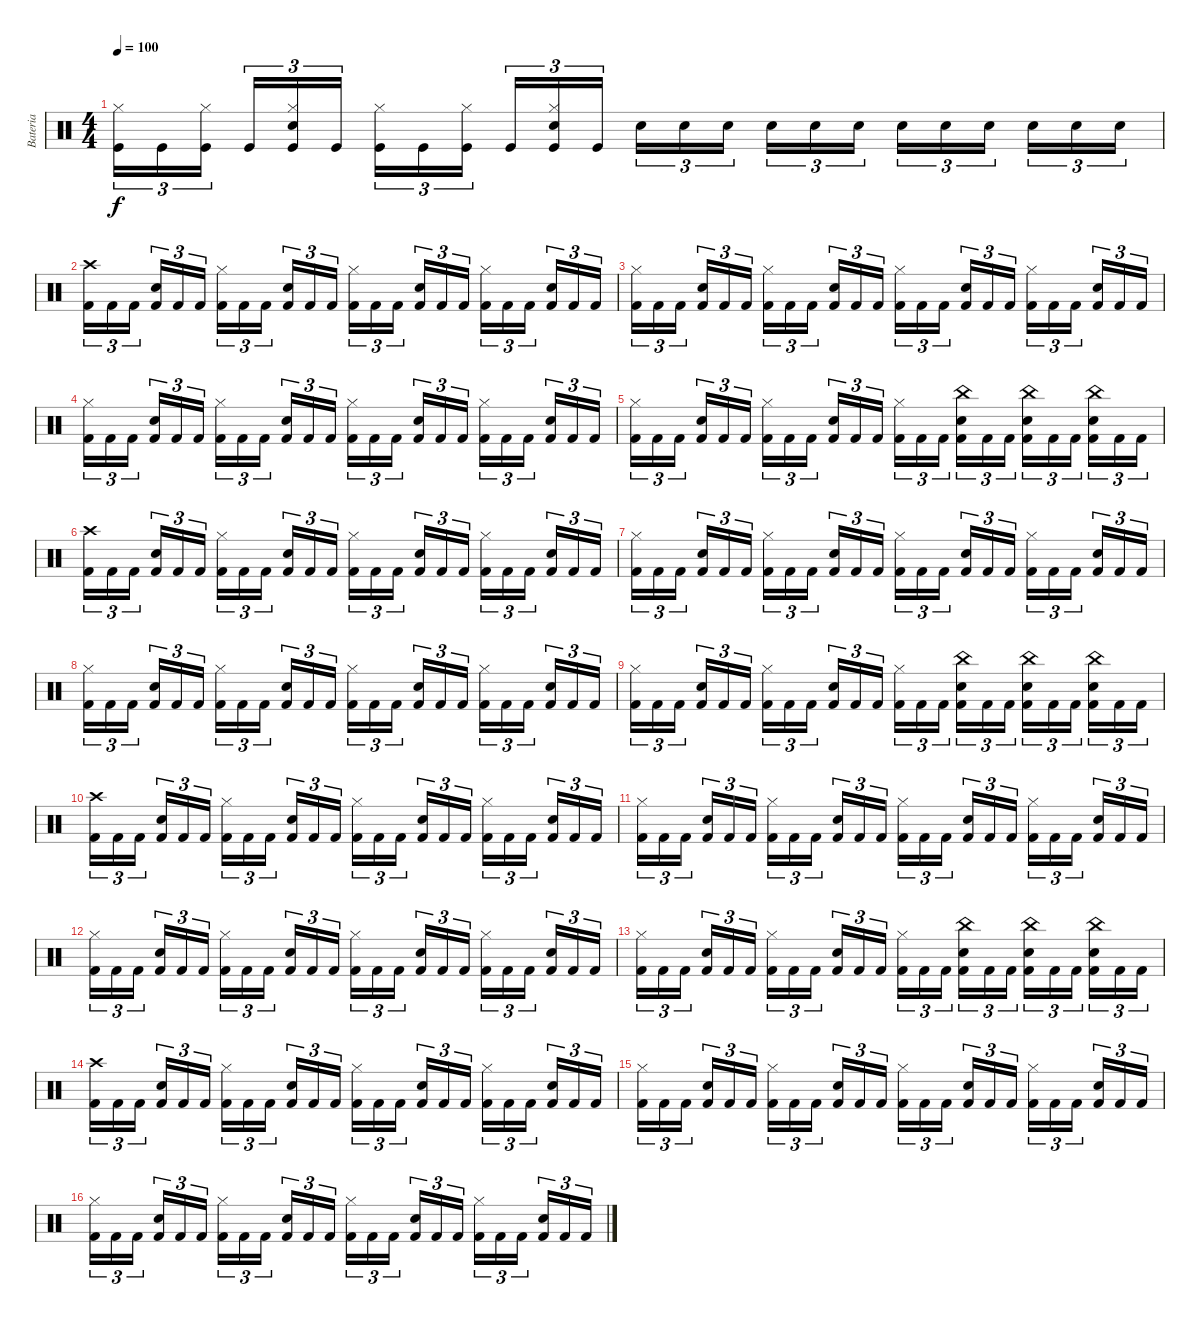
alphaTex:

\track ("Bateria" "Bateria") {instrument percussion}
\staff {score}
\articulation defaults
\ts (4 4)
\tempo 100
\clef neutral
\ks c
("Kick (hit)" "Hi-Hat (closed)").16{tu (3 2) dy f} "Kick (hit)".16{tu (3 2)} ("Kick (hit)" "Hi-Hat (closed)").16{tu (3 2)} "Kick (hit)".16{tu (3 2)} ("Kick (hit)" "Hi-Hat (closed)" "Snare (hit) 2").16{tu (3 2)} "Kick (hit)".16{tu (3 2)} ("Kick (hit)" "Hi-Hat (closed)").16{tu (3 2)} "Kick (hit)".16{tu (3 2)} ("Kick (hit)" "Hi-Hat (closed)").16{tu (3 2)} "Kick (hit)".16{tu (3 2)} ("Kick (hit)" "Hi-Hat (closed)" "Snare (hit) 2").16{tu (3 2)} "Kick (hit)".16{tu (3 2)} "Snare (hit) 2".16{tu (3 2)} "Snare (hit) 2".16{tu (3 2)} "Snare (hit) 2".16{tu (3 2)} "Snare (hit) 2".16{tu (3 2)} "Snare (hit) 2".16{tu (3 2)} "Snare (hit) 2".16{tu (3 2)} "Snare (hit) 2".16{tu (3 2)} "Snare (hit) 2".16{tu (3 2)} "Snare (hit) 2".16{tu (3 2)} "Snare (hit) 2".16{tu (3 2)} "Snare (hit) 2".16{tu (3 2)} "Snare (hit) 2".16{tu (3 2)} |
("Crash high (hit)" "Kick (hit) 2").16{tu (3 2)} "Kick (hit) 2".16{tu (3 2)} "Kick (hit) 2".16{tu (3 2)} ("Snare (hit) 2" "Kick (hit) 2").16{tu (3 2)} "Kick (hit) 2".16{tu (3 2)} "Kick (hit) 2".16{tu (3 2)} ("Hi-Hat (closed)" "Kick (hit) 2").16{tu (3 2)} "Kick (hit) 2".16{tu (3 2)} "Kick (hit) 2".16{tu (3 2)} ("Snare (hit) 2" "Kick (hit) 2").16{tu (3 2)} "Kick (hit) 2".16{tu (3 2)} "Kick (hit) 2".16{tu (3 2)} ("Hi-Hat (closed)" "Kick (hit) 2").16{tu (3 2)} "Kick (hit) 2".16{tu (3 2)} "Kick (hit) 2".16{tu (3 2)} ("Snare (hit) 2" "Kick (hit) 2").16{tu (3 2)} "Kick (hit) 2".16{tu (3 2)} "Kick (hit) 2".16{tu (3 2)} ("Hi-Hat (closed)" "Kick (hit) 2").16{tu (3 2)} "Kick (hit) 2".16{tu (3 2)} "Kick (hit) 2".16{tu (3 2)} ("Snare (hit) 2" "Kick (hit) 2").16{tu (3 2)} "Kick (hit) 2".16{tu (3 2)} "Kick (hit) 2".16{tu (3 2)} |
("Hi-Hat (closed)" "Kick (hit) 2").16{tu (3 2)} "Kick (hit) 2".16{tu (3 2)} "Kick (hit) 2".16{tu (3 2)} ("Snare (hit) 2" "Kick (hit) 2").16{tu (3 2)} "Kick (hit) 2".16{tu (3 2)} "Kick (hit) 2".16{tu (3 2)} ("Hi-Hat (closed)" "Kick (hit) 2").16{tu (3 2)} "Kick (hit) 2".16{tu (3 2)} "Kick (hit) 2".16{tu (3 2)} ("Snare (hit) 2" "Kick (hit) 2").16{tu (3 2)} "Kick (hit) 2".16{tu (3 2)} "Kick (hit) 2".16{tu (3 2)} ("Hi-Hat (closed)" "Kick (hit) 2").16{tu (3 2)} "Kick (hit) 2".16{tu (3 2)} "Kick (hit) 2".16{tu (3 2)} ("Snare (hit) 2" "Kick (hit) 2").16{tu (3 2)} "Kick (hit) 2".16{tu (3 2)} "Kick (hit) 2".16{tu (3 2)} ("Hi-Hat (closed)" "Kick (hit) 2").16{tu (3 2)} "Kick (hit) 2".16{tu (3 2)} "Kick (hit) 2".16{tu (3 2)} ("Snare (hit) 2" "Kick (hit) 2").16{tu (3 2)} "Kick (hit) 2".16{tu (3 2)} "Kick (hit) 2".16{tu (3 2)} |
("Hi-Hat (closed)" "Kick (hit) 2").16{tu (3 2)} "Kick (hit) 2".16{tu (3 2)} "Kick (hit) 2".16{tu (3 2)} ("Snare (hit) 2" "Kick (hit) 2").16{tu (3 2)} "Kick (hit) 2".16{tu (3 2)} "Kick (hit) 2".16{tu (3 2)} ("Hi-Hat (closed)" "Kick (hit) 2").16{tu (3 2)} "Kick (hit) 2".16{tu (3 2)} "Kick (hit) 2".16{tu (3 2)} ("Snare (hit) 2" "Kick (hit) 2").16{tu (3 2)} "Kick (hit) 2".16{tu (3 2)} "Kick (hit) 2".16{tu (3 2)} ("Hi-Hat (closed)" "Kick (hit) 2").16{tu (3 2)} "Kick (hit) 2".16{tu (3 2)} "Kick (hit) 2".16{tu (3 2)} ("Snare (hit) 2" "Kick (hit) 2").16{tu (3 2)} "Kick (hit) 2".16{tu (3 2)} "Kick (hit) 2".16{tu (3 2)} ("Hi-Hat (closed)" "Kick (hit) 2").16{tu (3 2)} "Kick (hit) 2".16{tu (3 2)} "Kick (hit) 2".16{tu (3 2)} ("Snare (hit) 2" "Kick (hit) 2").16{tu (3 2)} "Kick (hit) 2".16{tu (3 2)} "Kick (hit) 2".16{tu (3 2)} |
("Hi-Hat (closed)" "Kick (hit) 2").16{tu (3 2)} "Kick (hit) 2".16{tu (3 2)} "Kick (hit) 2".16{tu (3 2)} ("Snare (hit) 2" "Kick (hit) 2").16{tu (3 2)} "Kick (hit) 2".16{tu (3 2)} "Kick (hit) 2".16{tu (3 2)} ("Hi-Hat (closed)" "Kick (hit) 2").16{tu (3 2)} "Kick (hit) 2".16{tu (3 2)} "Kick (hit) 2".16{tu (3 2)} ("Snare (hit) 2" "Kick (hit) 2").16{tu (3 2)} "Kick (hit) 2".16{tu (3 2)} "Kick (hit) 2".16{tu (3 2)} ("Hi-Hat (closed)" "Kick (hit) 2").16{tu (3 2)} "Kick (hit) 2".16{tu (3 2)} "Kick (hit) 2".16{tu (3 2)} ("China (hit)" "Snare (hit) 2" "Kick (hit) 2").16{tu (3 2)} "Kick (hit) 2".16{tu (3 2)} "Kick (hit) 2".16{tu (3 2)} ("China (hit)" "Snare (hit) 2" "Kick (hit) 2").16{tu (3 2)} "Kick (hit) 2".16{tu (3 2)} "Kick (hit) 2".16{tu (3 2)} ("China (hit)" "Snare (hit) 2" "Kick (hit) 2").16{tu (3 2)} "Kick (hit) 2".16{tu (3 2)} "Kick (hit) 2".16{tu (3 2)} |
("Crash high (hit)" "Kick (hit) 2").16{tu (3 2)} "Kick (hit) 2".16{tu (3 2)} "Kick (hit) 2".16{tu (3 2)} ("Snare (hit) 2" "Kick (hit) 2").16{tu (3 2)} "Kick (hit) 2".16{tu (3 2)} "Kick (hit) 2".16{tu (3 2)} ("Hi-Hat (closed)" "Kick (hit) 2").16{tu (3 2)} "Kick (hit) 2".16{tu (3 2)} "Kick (hit) 2".16{tu (3 2)} ("Snare (hit) 2" "Kick (hit) 2").16{tu (3 2)} "Kick (hit) 2".16{tu (3 2)} "Kick (hit) 2".16{tu (3 2)} ("Hi-Hat (closed)" "Kick (hit) 2").16{tu (3 2)} "Kick (hit) 2".16{tu (3 2)} "Kick (hit) 2".16{tu (3 2)} ("Snare (hit) 2" "Kick (hit) 2").16{tu (3 2)} "Kick (hit) 2".16{tu (3 2)} "Kick (hit) 2".16{tu (3 2)} ("Hi-Hat (closed)" "Kick (hit) 2").16{tu (3 2)} "Kick (hit) 2".16{tu (3 2)} "Kick (hit) 2".16{tu (3 2)} ("Snare (hit) 2" "Kick (hit) 2").16{tu (3 2)} "Kick (hit) 2".16{tu (3 2)} "Kick (hit) 2".16{tu (3 2)} |
("Hi-Hat (closed)" "Kick (hit) 2").16{tu (3 2)} "Kick (hit) 2".16{tu (3 2)} "Kick (hit) 2".16{tu (3 2)} ("Snare (hit) 2" "Kick (hit) 2").16{tu (3 2)} "Kick (hit) 2".16{tu (3 2)} "Kick (hit) 2".16{tu (3 2)} ("Hi-Hat (closed)" "Kick (hit) 2").16{tu (3 2)} "Kick (hit) 2".16{tu (3 2)} "Kick (hit) 2".16{tu (3 2)} ("Snare (hit) 2" "Kick (hit) 2").16{tu (3 2)} "Kick (hit) 2".16{tu (3 2)} "Kick (hit) 2".16{tu (3 2)} ("Hi-Hat (closed)" "Kick (hit) 2").16{tu (3 2)} "Kick (hit) 2".16{tu (3 2)} "Kick (hit) 2".16{tu (3 2)} ("Snare (hit) 2" "Kick (hit) 2").16{tu (3 2)} "Kick (hit) 2".16{tu (3 2)} "Kick (hit) 2".16{tu (3 2)} ("Hi-Hat (closed)" "Kick (hit) 2").16{tu (3 2)} "Kick (hit) 2".16{tu (3 2)} "Kick (hit) 2".16{tu (3 2)} ("Snare (hit) 2" "Kick (hit) 2").16{tu (3 2)} "Kick (hit) 2".16{tu (3 2)} "Kick (hit) 2".16{tu (3 2)} |
("Hi-Hat (closed)" "Kick (hit) 2").16{tu (3 2)} "Kick (hit) 2".16{tu (3 2)} "Kick (hit) 2".16{tu (3 2)} ("Snare (hit) 2" "Kick (hit) 2").16{tu (3 2)} "Kick (hit) 2".16{tu (3 2)} "Kick (hit) 2".16{tu (3 2)} ("Hi-Hat (closed)" "Kick (hit) 2").16{tu (3 2)} "Kick (hit) 2".16{tu (3 2)} "Kick (hit) 2".16{tu (3 2)} ("Snare (hit) 2" "Kick (hit) 2").16{tu (3 2)} "Kick (hit) 2".16{tu (3 2)} "Kick (hit) 2".16{tu (3 2)} ("Hi-Hat (closed)" "Kick (hit) 2").16{tu (3 2)} "Kick (hit) 2".16{tu (3 2)} "Kick (hit) 2".16{tu (3 2)} ("Snare (hit) 2" "Kick (hit) 2").16{tu (3 2)} "Kick (hit) 2".16{tu (3 2)} "Kick (hit) 2".16{tu (3 2)} ("Hi-Hat (closed)" "Kick (hit) 2").16{tu (3 2)} "Kick (hit) 2".16{tu (3 2)} "Kick (hit) 2".16{tu (3 2)} ("Snare (hit) 2" "Kick (hit) 2").16{tu (3 2)} "Kick (hit) 2".16{tu (3 2)} "Kick (hit) 2".16{tu (3 2)} |
("Hi-Hat (closed)" "Kick (hit) 2").16{tu (3 2)} "Kick (hit) 2".16{tu (3 2)} "Kick (hit) 2".16{tu (3 2)} ("Snare (hit) 2" "Kick (hit) 2").16{tu (3 2)} "Kick (hit) 2".16{tu (3 2)} "Kick (hit) 2".16{tu (3 2)} ("Hi-Hat (closed)" "Kick (hit) 2").16{tu (3 2)} "Kick (hit) 2".16{tu (3 2)} "Kick (hit) 2".16{tu (3 2)} ("Snare (hit) 2" "Kick (hit) 2").16{tu (3 2)} "Kick (hit) 2".16{tu (3 2)} "Kick (hit) 2".16{tu (3 2)} ("Hi-Hat (closed)" "Kick (hit) 2").16{tu (3 2)} "Kick (hit) 2".16{tu (3 2)} "Kick (hit) 2".16{tu (3 2)} ("China (hit)" "Snare (hit) 2" "Kick (hit) 2").16{tu (3 2)} "Kick (hit) 2".16{tu (3 2)} "Kick (hit) 2".16{tu (3 2)} ("China (hit)" "Snare (hit) 2" "Kick (hit) 2").16{tu (3 2)} "Kick (hit) 2".16{tu (3 2)} "Kick (hit) 2".16{tu (3 2)} ("China (hit)" "Snare (hit) 2" "Kick (hit) 2").16{tu (3 2)} "Kick (hit) 2".16{tu (3 2)} "Kick (hit) 2".16{tu (3 2)} |
("Crash high (hit)" "Kick (hit) 2").16{tu (3 2)} "Kick (hit) 2".16{tu (3 2)} "Kick (hit) 2".16{tu (3 2)} ("Snare (hit) 2" "Kick (hit) 2").16{tu (3 2)} "Kick (hit) 2".16{tu (3 2)} "Kick (hit) 2".16{tu (3 2)} ("Hi-Hat (closed)" "Kick (hit) 2").16{tu (3 2)} "Kick (hit) 2".16{tu (3 2)} "Kick (hit) 2".16{tu (3 2)} ("Snare (hit) 2" "Kick (hit) 2").16{tu (3 2)} "Kick (hit) 2".16{tu (3 2)} "Kick (hit) 2".16{tu (3 2)} ("Hi-Hat (closed)" "Kick (hit) 2").16{tu (3 2)} "Kick (hit) 2".16{tu (3 2)} "Kick (hit) 2".16{tu (3 2)} ("Snare (hit) 2" "Kick (hit) 2").16{tu (3 2)} "Kick (hit) 2".16{tu (3 2)} "Kick (hit) 2".16{tu (3 2)} ("Hi-Hat (closed)" "Kick (hit) 2").16{tu (3 2)} "Kick (hit) 2".16{tu (3 2)} "Kick (hit) 2".16{tu (3 2)} ("Snare (hit) 2" "Kick (hit) 2").16{tu (3 2)} "Kick (hit) 2".16{tu (3 2)} "Kick (hit) 2".16{tu (3 2)} |
("Hi-Hat (closed)" "Kick (hit) 2").16{tu (3 2)} "Kick (hit) 2".16{tu (3 2)} "Kick (hit) 2".16{tu (3 2)} ("Snare (hit) 2" "Kick (hit) 2").16{tu (3 2)} "Kick (hit) 2".16{tu (3 2)} "Kick (hit) 2".16{tu (3 2)} ("Hi-Hat (closed)" "Kick (hit) 2").16{tu (3 2)} "Kick (hit) 2".16{tu (3 2)} "Kick (hit) 2".16{tu (3 2)} ("Snare (hit) 2" "Kick (hit) 2").16{tu (3 2)} "Kick (hit) 2".16{tu (3 2)} "Kick (hit) 2".16{tu (3 2)} ("Hi-Hat (closed)" "Kick (hit) 2").16{tu (3 2)} "Kick (hit) 2".16{tu (3 2)} "Kick (hit) 2".16{tu (3 2)} ("Snare (hit) 2" "Kick (hit) 2").16{tu (3 2)} "Kick (hit) 2".16{tu (3 2)} "Kick (hit) 2".16{tu (3 2)} ("Hi-Hat (closed)" "Kick (hit) 2").16{tu (3 2)} "Kick (hit) 2".16{tu (3 2)} "Kick (hit) 2".16{tu (3 2)} ("Snare (hit) 2" "Kick (hit) 2").16{tu (3 2)} "Kick (hit) 2".16{tu (3 2)} "Kick (hit) 2".16{tu (3 2)} |
("Hi-Hat (closed)" "Kick (hit) 2").16{tu (3 2)} "Kick (hit) 2".16{tu (3 2)} "Kick (hit) 2".16{tu (3 2)} ("Snare (hit) 2" "Kick (hit) 2").16{tu (3 2)} "Kick (hit) 2".16{tu (3 2)} "Kick (hit) 2".16{tu (3 2)} ("Hi-Hat (closed)" "Kick (hit) 2").16{tu (3 2)} "Kick (hit) 2".16{tu (3 2)} "Kick (hit) 2".16{tu (3 2)} ("Snare (hit) 2" "Kick (hit) 2").16{tu (3 2)} "Kick (hit) 2".16{tu (3 2)} "Kick (hit) 2".16{tu (3 2)} ("Hi-Hat (closed)" "Kick (hit) 2").16{tu (3 2)} "Kick (hit) 2".16{tu (3 2)} "Kick (hit) 2".16{tu (3 2)} ("Snare (hit) 2" "Kick (hit) 2").16{tu (3 2)} "Kick (hit) 2".16{tu (3 2)} "Kick (hit) 2".16{tu (3 2)} ("Hi-Hat (closed)" "Kick (hit) 2").16{tu (3 2)} "Kick (hit) 2".16{tu (3 2)} "Kick (hit) 2".16{tu (3 2)} ("Snare (hit) 2" "Kick (hit) 2").16{tu (3 2)} "Kick (hit) 2".16{tu (3 2)} "Kick (hit) 2".16{tu (3 2)} |
("Hi-Hat (closed)" "Kick (hit) 2").16{tu (3 2)} "Kick (hit) 2".16{tu (3 2)} "Kick (hit) 2".16{tu (3 2)} ("Snare (hit) 2" "Kick (hit) 2").16{tu (3 2)} "Kick (hit) 2".16{tu (3 2)} "Kick (hit) 2".16{tu (3 2)} ("Hi-Hat (closed)" "Kick (hit) 2").16{tu (3 2)} "Kick (hit) 2".16{tu (3 2)} "Kick (hit) 2".16{tu (3 2)} ("Snare (hit) 2" "Kick (hit) 2").16{tu (3 2)} "Kick (hit) 2".16{tu (3 2)} "Kick (hit) 2".16{tu (3 2)} ("Hi-Hat (closed)" "Kick (hit) 2").16{tu (3 2)} "Kick (hit) 2".16{tu (3 2)} "Kick (hit) 2".16{tu (3 2)} ("China (hit)" "Snare (hit) 2" "Kick (hit) 2").16{tu (3 2)} "Kick (hit) 2".16{tu (3 2)} "Kick (hit) 2".16{tu (3 2)} ("China (hit)" "Snare (hit) 2" "Kick (hit) 2").16{tu (3 2)} "Kick (hit) 2".16{tu (3 2)} "Kick (hit) 2".16{tu (3 2)} ("China (hit)" "Snare (hit) 2" "Kick (hit) 2").16{tu (3 2)} "Kick (hit) 2".16{tu (3 2)} "Kick (hit) 2".16{tu (3 2)} |
("Crash high (hit)" "Kick (hit) 2").16{tu (3 2)} "Kick (hit) 2".16{tu (3 2)} "Kick (hit) 2".16{tu (3 2)} ("Snare (hit) 2" "Kick (hit) 2").16{tu (3 2)} "Kick (hit) 2".16{tu (3 2)} "Kick (hit) 2".16{tu (3 2)} ("Hi-Hat (closed)" "Kick (hit) 2").16{tu (3 2)} "Kick (hit) 2".16{tu (3 2)} "Kick (hit) 2".16{tu (3 2)} ("Snare (hit) 2" "Kick (hit) 2").16{tu (3 2)} "Kick (hit) 2".16{tu (3 2)} "Kick (hit) 2".16{tu (3 2)} ("Hi-Hat (closed)" "Kick (hit) 2").16{tu (3 2)} "Kick (hit) 2".16{tu (3 2)} "Kick (hit) 2".16{tu (3 2)} ("Snare (hit) 2" "Kick (hit) 2").16{tu (3 2)} "Kick (hit) 2".16{tu (3 2)} "Kick (hit) 2".16{tu (3 2)} ("Hi-Hat (closed)" "Kick (hit) 2").16{tu (3 2)} "Kick (hit) 2".16{tu (3 2)} "Kick (hit) 2".16{tu (3 2)} ("Snare (hit) 2" "Kick (hit) 2").16{tu (3 2)} "Kick (hit) 2".16{tu (3 2)} "Kick (hit) 2".16{tu (3 2)} |
("Hi-Hat (closed)" "Kick (hit) 2").16{tu (3 2)} "Kick (hit) 2".16{tu (3 2)} "Kick (hit) 2".16{tu (3 2)} ("Snare (hit) 2" "Kick (hit) 2").16{tu (3 2)} "Kick (hit) 2".16{tu (3 2)} "Kick (hit) 2".16{tu (3 2)} ("Hi-Hat (closed)" "Kick (hit) 2").16{tu (3 2)} "Kick (hit) 2".16{tu (3 2)} "Kick (hit) 2".16{tu (3 2)} ("Snare (hit) 2" "Kick (hit) 2").16{tu (3 2)} "Kick (hit) 2".16{tu (3 2)} "Kick (hit) 2".16{tu (3 2)} ("Hi-Hat (closed)" "Kick (hit) 2").16{tu (3 2)} "Kick (hit) 2".16{tu (3 2)} "Kick (hit) 2".16{tu (3 2)} ("Snare (hit) 2" "Kick (hit) 2").16{tu (3 2)} "Kick (hit) 2".16{tu (3 2)} "Kick (hit) 2".16{tu (3 2)} ("Hi-Hat (closed)" "Kick (hit) 2").16{tu (3 2)} "Kick (hit) 2".16{tu (3 2)} "Kick (hit) 2".16{tu (3 2)} ("Snare (hit) 2" "Kick (hit) 2").16{tu (3 2)} "Kick (hit) 2".16{tu (3 2)} "Kick (hit) 2".16{tu (3 2)} |
("Hi-Hat (closed)" "Kick (hit) 2").16{tu (3 2)} "Kick (hit) 2".16{tu (3 2)} "Kick (hit) 2".16{tu (3 2)} ("Snare (hit) 2" "Kick (hit) 2").16{tu (3 2)} "Kick (hit) 2".16{tu (3 2)} "Kick (hit) 2".16{tu (3 2)} ("Hi-Hat (closed)" "Kick (hit) 2").16{tu (3 2)} "Kick (hit) 2".16{tu (3 2)} "Kick (hit) 2".16{tu (3 2)} ("Snare (hit) 2" "Kick (hit) 2").16{tu (3 2)} "Kick (hit) 2".16{tu (3 2)} "Kick (hit) 2".16{tu (3 2)} ("Hi-Hat (closed)" "Kick (hit) 2").16{tu (3 2)} "Kick (hit) 2".16{tu (3 2)} "Kick (hit) 2".16{tu (3 2)} ("Snare (hit) 2" "Kick (hit) 2").16{tu (3 2)} "Kick (hit) 2".16{tu (3 2)} "Kick (hit) 2".16{tu (3 2)} ("Hi-Hat (closed)" "Kick (hit) 2").16{tu (3 2)} "Kick (hit) 2".16{tu (3 2)} "Kick (hit) 2".16{tu (3 2)} ("Snare (hit) 2" "Kick (hit) 2").16{tu (3 2)} "Kick (hit) 2".16{tu (3 2)} "Kick (hit) 2".16{tu (3 2)}
